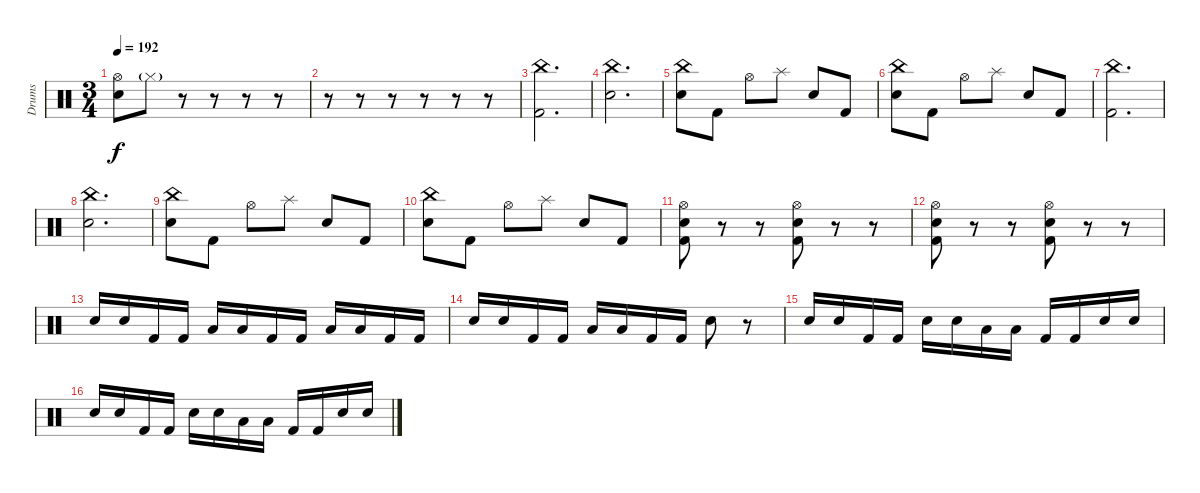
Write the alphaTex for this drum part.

\track ("Drums" "Drums") {instrument percussion}
\staff {score}
\articulation defaults
\ts (3 4)
\tempo 192
\clef neutral
\ks c
("Hi-Hat (open)" "Electric Snare (hit)").8{dy f} "Hi-Hat (closed)"{g}.8 r.8 r.8 r.8 r.8 |
r.8 r.8 r.8 r.8 r.8 r.8 |
("China (hit)" "Kick (hit) 2").2{d} |
("China (hit)" "Electric Snare (hit)").2{d} |
("China (hit)" "Electric Snare (hit)").8 "Kick (hit) 2".8 "Hi-Hat (open)".8 "Splash (hit)".8 "Electric Snare (hit)".8 "Kick (hit) 2".8 |
("China (hit)" "Electric Snare (hit)").8 "Kick (hit) 2".8 "Hi-Hat (open)".8 "Splash (hit)".8 "Electric Snare (hit)".8 "Kick (hit) 2".8 |
("China (hit)" "Kick (hit) 2").2{d} |
("China (hit)" "Electric Snare (hit)").2{d} |
("China (hit)" "Electric Snare (hit)").8 "Kick (hit) 2".8 "Hi-Hat (open)".8 "Splash (hit)".8 "Electric Snare (hit)".8 "Kick (hit) 2".8 |
("China (hit)" "Electric Snare (hit)").8 "Kick (hit) 2".8 "Hi-Hat (open)".8 "Splash (hit)".8 "Electric Snare (hit)".8 "Kick (hit) 2".8 |
("Hi-Hat (open)" "Electric Snare (hit)" "Kick (hit) 2").8 r.8 r.8 ("Hi-Hat (open)" "Electric Snare (hit)" "Kick (hit) 2").8 r.8 r.8 |
("Hi-Hat (open)" "Electric Snare (hit)" "Kick (hit) 2").8 r.8 r.8 ("Hi-Hat (open)" "Electric Snare (hit)" "Kick (hit) 2").8 r.8 r.8 |
"Electric Snare (hit)".16 "Electric Snare (hit)".16 "Kick (hit) 2".16 "Kick (hit) 2".16 "Low Tom (hit)".16 "Low Tom (hit)".16 "Kick (hit) 2".16 "Kick (hit) 2".16 "Low Floor Tom (hit)".16 "Low Floor Tom (hit)".16 "Kick (hit) 2".16 "Kick (hit) 2".16 |
"Electric Snare (hit)".16 "Electric Snare (hit)".16 "Kick (hit) 2".16 "Kick (hit) 2".16 "Low Tom (hit)".16 "Low Tom (hit)".16 "Kick (hit) 2".16 "Kick (hit) 2".16 "Electric Snare (hit)".8 r.8 |
"Electric Snare (hit)".16 "Electric Snare (hit)".16 "Kick (hit) 2".16 "Kick (hit) 2".16 "Electric Snare (hit)".16 "Electric Snare (hit)".16 "Low Tom (hit)".16 "Low Tom (hit)".16 "Kick (hit) 2".16 "Kick (hit) 2".16 "Electric Snare (hit)".16 "Electric Snare (hit)".16 |
"Electric Snare (hit)".16 "Electric Snare (hit)".16 "Kick (hit) 2".16 "Kick (hit) 2".16 "Electric Snare (hit)".16 "Electric Snare (hit)".16 "Low Tom (hit)".16 "Low Tom (hit)".16 "Kick (hit) 2".16 "Kick (hit) 2".16 "Electric Snare (hit)".16 "Electric Snare (hit)".16
